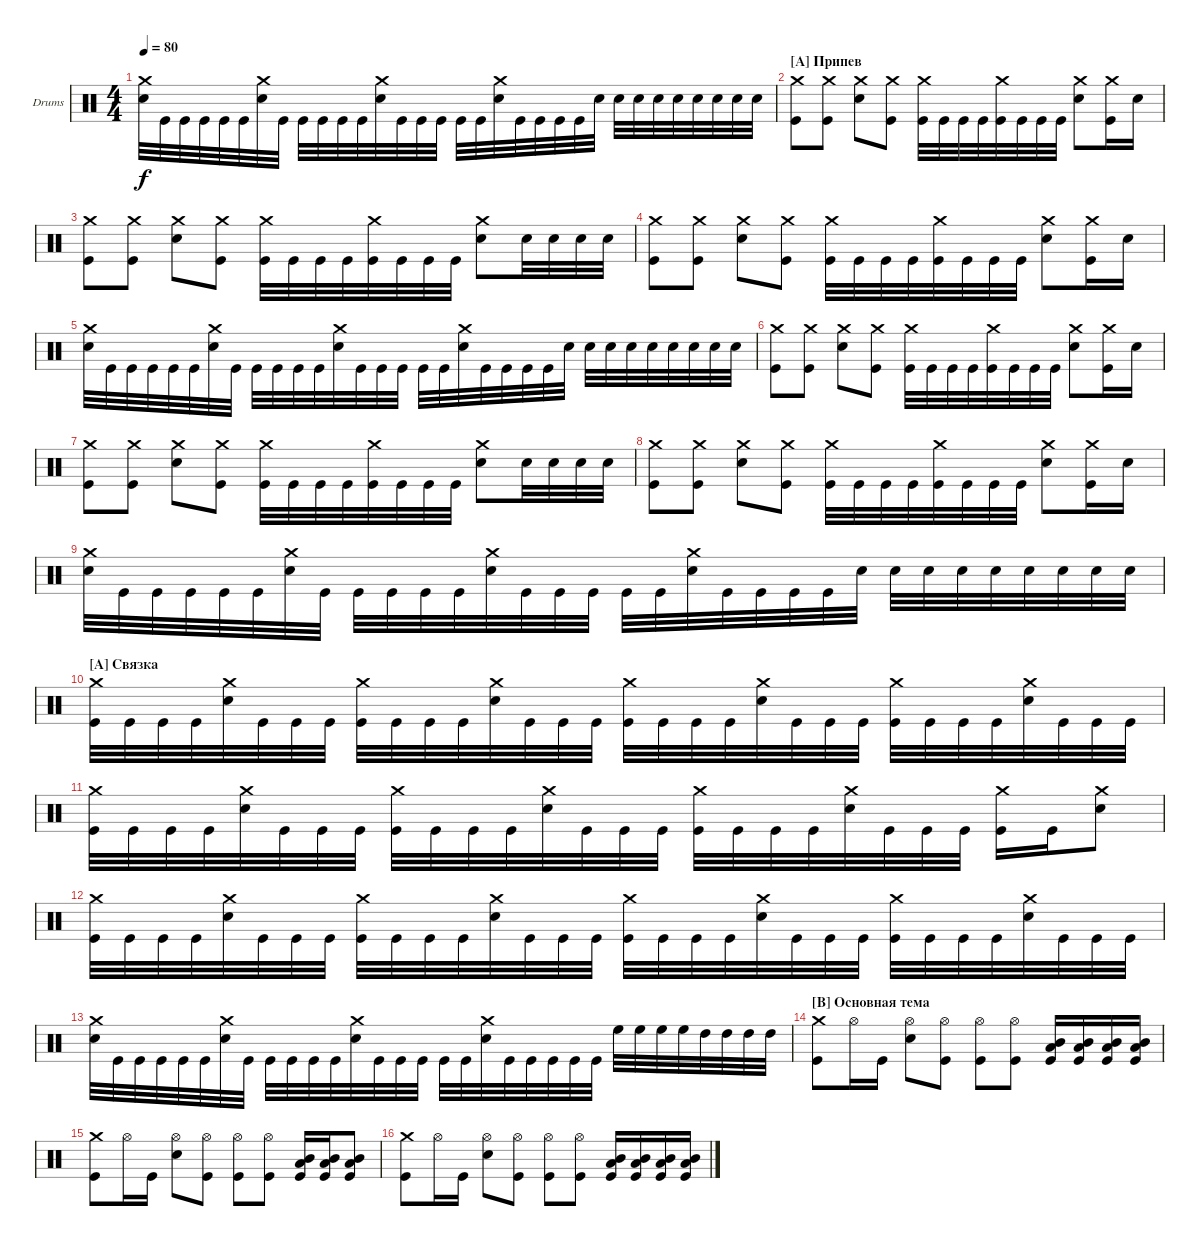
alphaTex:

\defaultSystemsLayout 4
\bracketExtendMode groupsimilarinstruments
\firstSystemTrackNameOrientation horizontal
\otherSystemsTrackNameOrientation horizontal
\track ("Drumkit" "Drums") {instrument percussion}
\staff {score}
\articulation defaults
\ts (4 4)
\tempo 80
\clef neutral
\ks c
("Crash medium (hit)" "Snare (hit) 2").32{dy f} "Kick (hit)".32 "Kick (hit)".32 "Kick (hit)".32 "Kick (hit)".32 "Kick (hit)".32 ("Crash medium (hit)" "Snare (hit) 2").32 "Kick (hit)".32 "Kick (hit)".32 "Kick (hit)".32 "Kick (hit)".32 "Kick (hit)".32 ("Crash medium (hit)" "Snare (hit) 2").32 "Kick (hit)".32 "Kick (hit)".32 "Kick (hit)".32 "Kick (hit)".32 "Kick (hit)".32 ("Crash medium (hit)" "Snare (hit) 2").32 "Kick (hit)".32 "Kick (hit)".32 "Kick (hit)".32 "Kick (hit)".32 "Snare (hit) 2".32 "Snare (hit) 2".32 "Snare (hit) 2".32 "Snare (hit) 2".32 "Snare (hit) 2".32 "Snare (hit) 2".32 "Snare (hit) 2".32 "Snare (hit) 2".32 "Snare (hit) 2".32 |
\section ("A" "Припев")
("Kick (hit)" "Crash medium (hit)").8 ("Kick (hit)" "Crash medium (hit)").8 ("Snare (hit) 2" "Crash medium (hit)").8 ("Kick (hit)" "Crash medium (hit)").8 ("Kick (hit)" "Crash medium (hit)").32 "Kick (hit)".32 "Kick (hit)".32 "Kick (hit)".32 ("Kick (hit)" "Crash medium (hit)").32 "Kick (hit)".32 "Kick (hit)".32 "Kick (hit)".32 ("Snare (hit) 2" "Crash medium (hit)").8 ("Kick (hit)" "Crash medium (hit)").16 "Snare (hit) 2".16 |
("Kick (hit)" "Crash medium (hit)").8 ("Kick (hit)" "Crash medium (hit)").8 ("Snare (hit) 2" "Crash medium (hit)").8 ("Kick (hit)" "Crash medium (hit)").8 ("Kick (hit)" "Crash medium (hit)").32 "Kick (hit)".32 "Kick (hit)".32 "Kick (hit)".32 ("Kick (hit)" "Crash medium (hit)").32 "Kick (hit)".32 "Kick (hit)".32 "Kick (hit)".32 ("Snare (hit) 2" "Crash medium (hit)").8 "Snare (hit) 2".32 "Snare (hit) 2".32 "Snare (hit) 2".32 "Snare (hit) 2".32 |
("Kick (hit)" "Crash medium (hit)").8 ("Kick (hit)" "Crash medium (hit)").8 ("Snare (hit) 2" "Crash medium (hit)").8 ("Kick (hit)" "Crash medium (hit)").8 ("Kick (hit)" "Crash medium (hit)").32 "Kick (hit)".32 "Kick (hit)".32 "Kick (hit)".32 ("Kick (hit)" "Crash medium (hit)").32 "Kick (hit)".32 "Kick (hit)".32 "Kick (hit)".32 ("Snare (hit) 2" "Crash medium (hit)").8 ("Kick (hit)" "Crash medium (hit)").16 "Snare (hit) 2".16 |
("Crash medium (hit)" "Snare (hit) 2").32 "Kick (hit)".32 "Kick (hit)".32 "Kick (hit)".32 "Kick (hit)".32 "Kick (hit)".32 ("Crash medium (hit)" "Snare (hit) 2").32 "Kick (hit)".32 "Kick (hit)".32 "Kick (hit)".32 "Kick (hit)".32 "Kick (hit)".32 ("Crash medium (hit)" "Snare (hit) 2").32 "Kick (hit)".32 "Kick (hit)".32 "Kick (hit)".32 "Kick (hit)".32 "Kick (hit)".32 ("Crash medium (hit)" "Snare (hit) 2").32 "Kick (hit)".32 "Kick (hit)".32 "Kick (hit)".32 "Kick (hit)".32 "Snare (hit) 2".32 "Snare (hit) 2".32 "Snare (hit) 2".32 "Snare (hit) 2".32 "Snare (hit) 2".32 "Snare (hit) 2".32 "Snare (hit) 2".32 "Snare (hit) 2".32 "Snare (hit) 2".32 |
("Kick (hit)" "Crash medium (hit)").8 ("Kick (hit)" "Crash medium (hit)").8 ("Snare (hit) 2" "Crash medium (hit)").8 ("Kick (hit)" "Crash medium (hit)").8 ("Kick (hit)" "Crash medium (hit)").32 "Kick (hit)".32 "Kick (hit)".32 "Kick (hit)".32 ("Kick (hit)" "Crash medium (hit)").32 "Kick (hit)".32 "Kick (hit)".32 "Kick (hit)".32 ("Snare (hit) 2" "Crash medium (hit)").8 ("Kick (hit)" "Crash medium (hit)").16 "Snare (hit) 2".16 |
("Kick (hit)" "Crash medium (hit)").8 ("Kick (hit)" "Crash medium (hit)").8 ("Snare (hit) 2" "Crash medium (hit)").8 ("Kick (hit)" "Crash medium (hit)").8 ("Kick (hit)" "Crash medium (hit)").32 "Kick (hit)".32 "Kick (hit)".32 "Kick (hit)".32 ("Kick (hit)" "Crash medium (hit)").32 "Kick (hit)".32 "Kick (hit)".32 "Kick (hit)".32 ("Snare (hit) 2" "Crash medium (hit)").8 "Snare (hit) 2".32 "Snare (hit) 2".32 "Snare (hit) 2".32 "Snare (hit) 2".32 |
("Kick (hit)" "Crash medium (hit)").8 ("Kick (hit)" "Crash medium (hit)").8 ("Snare (hit) 2" "Crash medium (hit)").8 ("Kick (hit)" "Crash medium (hit)").8 ("Kick (hit)" "Crash medium (hit)").32 "Kick (hit)".32 "Kick (hit)".32 "Kick (hit)".32 ("Kick (hit)" "Crash medium (hit)").32 "Kick (hit)".32 "Kick (hit)".32 "Kick (hit)".32 ("Snare (hit) 2" "Crash medium (hit)").8 ("Kick (hit)" "Crash medium (hit)").16 "Snare (hit) 2".16 |
("Crash medium (hit)" "Snare (hit) 2").32 "Kick (hit)".32 "Kick (hit)".32 "Kick (hit)".32 "Kick (hit)".32 "Kick (hit)".32 ("Crash medium (hit)" "Snare (hit) 2").32 "Kick (hit)".32 "Kick (hit)".32 "Kick (hit)".32 "Kick (hit)".32 "Kick (hit)".32 ("Crash medium (hit)" "Snare (hit) 2").32 "Kick (hit)".32 "Kick (hit)".32 "Kick (hit)".32 "Kick (hit)".32 "Kick (hit)".32 ("Crash medium (hit)" "Snare (hit) 2").32 "Kick (hit)".32 "Kick (hit)".32 "Kick (hit)".32 "Kick (hit)".32 "Snare (hit) 2".32 "Snare (hit) 2".32 "Snare (hit) 2".32 "Snare (hit) 2".32 "Snare (hit) 2".32 "Snare (hit) 2".32 "Snare (hit) 2".32 "Snare (hit) 2".32 "Snare (hit) 2".32 |
\section ("A" "Связка")
("Crash medium (hit)" "Kick (hit)").32 "Kick (hit)".32 "Kick (hit)".32 "Kick (hit)".32 ("Snare (hit) 2" "Crash medium (hit)").32 "Kick (hit)".32 "Kick (hit)".32 "Kick (hit)".32 ("Crash medium (hit)" "Kick (hit)").32 "Kick (hit)".32 "Kick (hit)".32 "Kick (hit)".32 ("Snare (hit) 2" "Crash medium (hit)").32 "Kick (hit)".32 "Kick (hit)".32 "Kick (hit)".32 ("Crash medium (hit)" "Kick (hit)").32 "Kick (hit)".32 "Kick (hit)".32 "Kick (hit)".32 ("Snare (hit) 2" "Crash medium (hit)").32 "Kick (hit)".32 "Kick (hit)".32 "Kick (hit)".32 ("Crash medium (hit)" "Kick (hit)").32 "Kick (hit)".32 "Kick (hit)".32 "Kick (hit)".32 ("Snare (hit) 2" "Crash medium (hit)").32 "Kick (hit)".32 "Kick (hit)".32 "Kick (hit)".32 |
("Crash medium (hit)" "Kick (hit)").32 "Kick (hit)".32 "Kick (hit)".32 "Kick (hit)".32 ("Snare (hit) 2" "Crash medium (hit)").32 "Kick (hit)".32 "Kick (hit)".32 "Kick (hit)".32 ("Crash medium (hit)" "Kick (hit)").32 "Kick (hit)".32 "Kick (hit)".32 "Kick (hit)".32 ("Snare (hit) 2" "Crash medium (hit)").32 "Kick (hit)".32 "Kick (hit)".32 "Kick (hit)".32 ("Crash medium (hit)" "Kick (hit)").32 "Kick (hit)".32 "Kick (hit)".32 "Kick (hit)".32 ("Snare (hit) 2" "Crash medium (hit)").32 "Kick (hit)".32 "Kick (hit)".32 "Kick (hit)".32 ("Crash medium (hit)" "Kick (hit)").16 "Kick (hit)".16 ("Snare (hit) 2" "Crash medium (hit)").8 |
("Crash medium (hit)" "Kick (hit)").32 "Kick (hit)".32 "Kick (hit)".32 "Kick (hit)".32 ("Snare (hit) 2" "Crash medium (hit)").32 "Kick (hit)".32 "Kick (hit)".32 "Kick (hit)".32 ("Crash medium (hit)" "Kick (hit)").32 "Kick (hit)".32 "Kick (hit)".32 "Kick (hit)".32 ("Snare (hit) 2" "Crash medium (hit)").32 "Kick (hit)".32 "Kick (hit)".32 "Kick (hit)".32 ("Crash medium (hit)" "Kick (hit)").32 "Kick (hit)".32 "Kick (hit)".32 "Kick (hit)".32 ("Snare (hit) 2" "Crash medium (hit)").32 "Kick (hit)".32 "Kick (hit)".32 "Kick (hit)".32 ("Crash medium (hit)" "Kick (hit)").32 "Kick (hit)".32 "Kick (hit)".32 "Kick (hit)".32 ("Snare (hit) 2" "Crash medium (hit)").32 "Kick (hit)".32 "Kick (hit)".32 "Kick (hit)".32 |
("Crash medium (hit)" "Snare (hit) 2").32 "Kick (hit)".32 "Kick (hit)".32 "Kick (hit)".32 "Kick (hit)".32 "Kick (hit)".32 ("Crash medium (hit)" "Snare (hit) 2").32 "Kick (hit)".32 "Kick (hit)".32 "Kick (hit)".32 "Kick (hit)".32 "Kick (hit)".32 ("Crash medium (hit)" "Snare (hit) 2").32 "Kick (hit)".32 "Kick (hit)".32 "Kick (hit)".32 "Kick (hit)".32 "Kick (hit)".32 ("Crash medium (hit)" "Snare (hit) 2").32 "Kick (hit)".32 "Kick (hit)".32 "Kick (hit)".32 "Kick (hit)".32 "Kick (hit)".32 "High Floor Tom (hit)".32 "High Floor Tom (hit)".32 "High Floor Tom (hit)".32 "High Floor Tom (hit)".32 "High Tom (hit)".32 "High Tom (hit)".32 "High Tom (hit)".32 "High Tom (hit)".32 |
\section ("B" "Основная тема")
("Crash medium (hit)" "Kick (hit)").8 "Hi-Hat (open)".16 "Kick (hit)".16 ("Snare (hit) 2" "Hi-Hat (open)").8 ("Kick (hit)" "Hi-Hat (open)").8 ("Kick (hit)" "Hi-Hat (open)").8 ("Kick (hit)" "Hi-Hat (open)").8 ("Kick (hit)" "Low Tom (hit)" "Mid Tom (hit)").16 ("Kick (hit)" "Low Tom (hit)" "Mid Tom (hit)").16 ("Kick (hit)" "Low Tom (hit)" "Mid Tom (hit)").16 ("Kick (hit)" "Low Tom (hit)" "Mid Tom (hit)").16 |
("Crash medium (hit)" "Kick (hit)").8 "Hi-Hat (open)".16 "Kick (hit)".16 ("Snare (hit) 2" "Hi-Hat (open)").8 ("Kick (hit)" "Hi-Hat (open)").8 ("Kick (hit)" "Hi-Hat (open)").8 ("Kick (hit)" "Hi-Hat (open)").8 ("Kick (hit)" "Low Tom (hit)" "Mid Tom (hit)").16 ("Kick (hit)" "Low Tom (hit)" "Mid Tom (hit)").16 ("Kick (hit)" "Low Tom (hit)" "Mid Tom (hit)").8 |
("Crash medium (hit)" "Kick (hit)").8 "Hi-Hat (open)".16 "Kick (hit)".16 ("Snare (hit) 2" "Hi-Hat (open)").8 ("Kick (hit)" "Hi-Hat (open)").8 ("Kick (hit)" "Hi-Hat (open)").8 ("Kick (hit)" "Hi-Hat (open)").8 ("Kick (hit)" "Low Tom (hit)" "Mid Tom (hit)").16 ("Kick (hit)" "Low Tom (hit)" "Mid Tom (hit)").16 ("Kick (hit)" "Low Tom (hit)" "Mid Tom (hit)").16 ("Kick (hit)" "Low Tom (hit)" "Mid Tom (hit)").16
